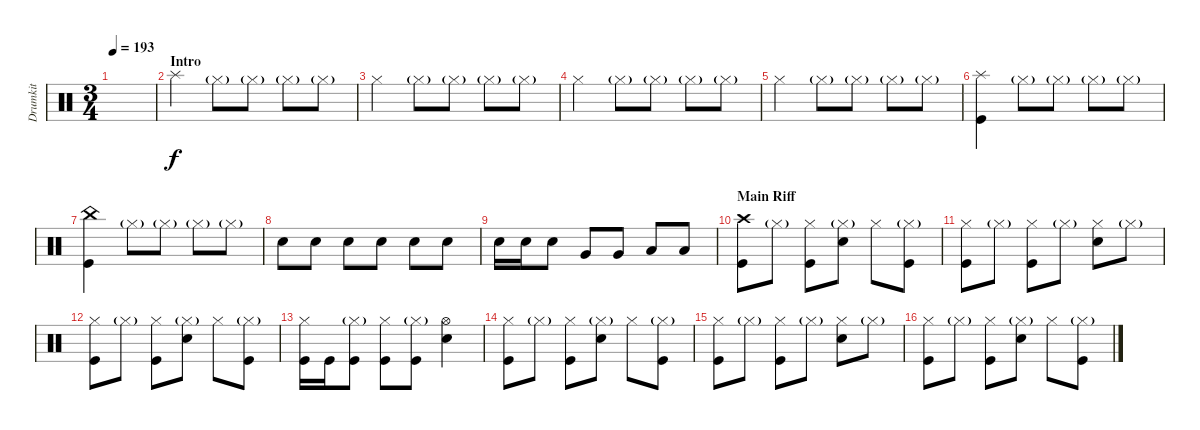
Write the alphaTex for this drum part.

\track ("Drumkit" "Drumkit") {instrument percussion}
\staff {score}
\articulation defaults
\ts (3 4)
\tempo 193
\clef neutral
\ks c
|
\section ("" "Intro")
"Splash (hit)".4 "Hi-Hat (closed)"{g}.8 "Hi-Hat (closed)"{g}.8 "Hi-Hat (closed)"{g}.8 "Hi-Hat (closed)"{g}.8 |
"Hi-Hat (closed)".4 "Hi-Hat (closed)"{g}.8 "Hi-Hat (closed)"{g}.8 "Hi-Hat (closed)"{g}.8 "Hi-Hat (closed)"{g}.8 |
"Hi-Hat (closed)".4 "Hi-Hat (closed)"{g}.8 "Hi-Hat (closed)"{g}.8 "Hi-Hat (closed)"{g}.8 "Hi-Hat (closed)"{g}.8 |
"Hi-Hat (closed)".4 "Hi-Hat (closed)"{g}.8 "Hi-Hat (closed)"{g}.8 "Hi-Hat (closed)"{g}.8 "Hi-Hat (closed)"{g}.8 |
("Splash (hit)" "Kick (hit)").4 "Hi-Hat (closed)"{g}.8 "Hi-Hat (closed)"{g}.8 "Hi-Hat (closed)"{g}.8 "Hi-Hat (closed)"{g}.8 |
("Kick (hit)" "China (hit)").4 "Hi-Hat (closed)"{g}.8 "Hi-Hat (closed)"{g}.8 "Hi-Hat (closed)"{g}.8 "Hi-Hat (closed)"{g}.8 |
"Snare (hit) 2".8 "Snare (hit) 2".8 "Snare (hit) 2".8 "Snare (hit) 2".8 "Snare (hit) 2".8 "Snare (hit) 2".8 |
"Snare (hit) 2".16 "Snare (hit) 2".16 "Snare (hit) 2".8 "Very Low Tom (hit)".8 "Very Low Tom (hit)".8 "Low Floor Tom (hit)".8 "Low Floor Tom (hit)".8 |
\section ("" "Main Riff")
("Crash high (hit)" "Kick (hit)").8 "Hi-Hat (closed)"{g}.8 ("Hi-Hat (closed)" "Kick (hit)").8 ("Hi-Hat (closed)"{g} "Snare (hit) 2").8 "Hi-Hat (closed)".8 ("Hi-Hat (closed)"{g} "Kick (hit)").8 |
("Hi-Hat (closed)" "Kick (hit)").8 "Hi-Hat (closed)"{g}.8 ("Hi-Hat (closed)" "Kick (hit)").8 "Hi-Hat (closed)"{g}.8 ("Hi-Hat (closed)" "Snare (hit) 2").8 "Hi-Hat (closed)"{g}.8 |
("Hi-Hat (closed)" "Kick (hit)").8 "Hi-Hat (closed)"{g}.8 ("Hi-Hat (closed)" "Kick (hit)").8 ("Hi-Hat (closed)"{g} "Snare (hit) 2").8 "Hi-Hat (closed)".8 ("Hi-Hat (closed)"{g} "Kick (hit)").8 |
("Hi-Hat (closed)" "Kick (hit)").16 "Kick (hit)".16 ("Hi-Hat (closed)"{g} "Kick (hit)").8 ("Hi-Hat (closed)" "Kick (hit)").8 ("Hi-Hat (closed)"{g} "Kick (hit)").8 ("Hi-Hat (open)" "Snare (hit) 2").4 |
("Kick (hit)" "Hi-Hat (closed)").8 "Hi-Hat (closed)"{g}.8 ("Hi-Hat (closed)" "Kick (hit)").8 ("Hi-Hat (closed)"{g} "Snare (hit) 2").8 "Hi-Hat (closed)".8 ("Hi-Hat (closed)"{g} "Kick (hit)").8 |
("Hi-Hat (closed)" "Kick (hit)").8 "Hi-Hat (closed)"{g}.8 ("Hi-Hat (closed)" "Kick (hit)").8 "Hi-Hat (closed)"{g}.8 ("Hi-Hat (closed)" "Snare (hit) 2").8 "Hi-Hat (closed)"{g}.8 |
("Hi-Hat (closed)" "Kick (hit)").8 "Hi-Hat (closed)"{g}.8 ("Hi-Hat (closed)" "Kick (hit)").8 ("Hi-Hat (closed)"{g} "Snare (hit) 2").8 "Hi-Hat (closed)".8 ("Hi-Hat (closed)"{g} "Kick (hit)").8
